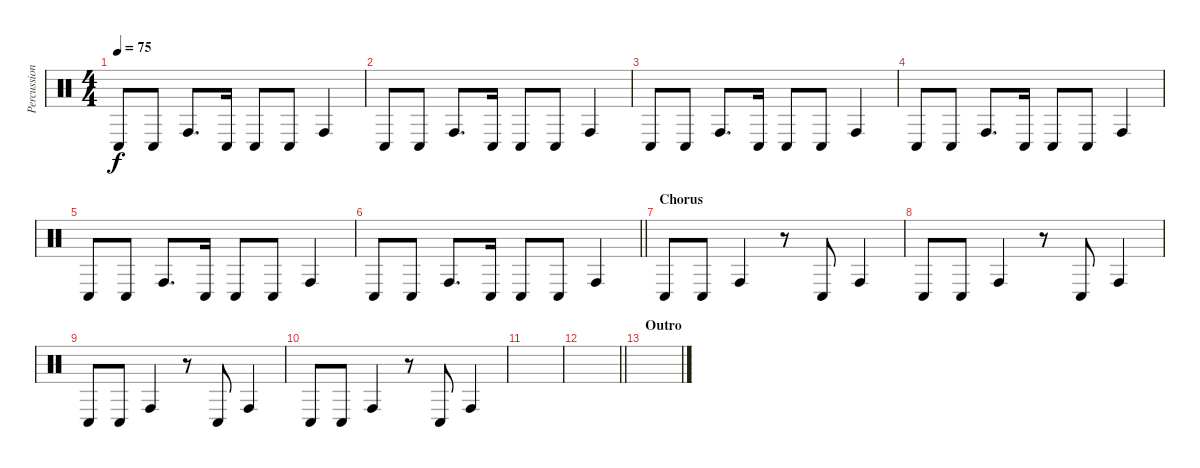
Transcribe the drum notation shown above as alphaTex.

\track ("Percussion (bongo's) +" "Percussion") {instrument percussion}
\staff {score}
\articulation defaults
\ts (4 4)
\tempo 75
\clef neutral
\ks c "Conga low (hit)".8{dy f} "Conga low (hit)".8 "Conga high (hit)".8{d} "Conga low (hit)".16 "Conga low (hit)".8 "Conga low (hit)".8 "Conga high (hit)".4
|
"Conga low (hit)".8 "Conga low (hit)".8 "Conga high (hit)".8{d} "Conga low (hit)".16 "Conga low (hit)".8 "Conga low (hit)".8 "Conga high (hit)".4 |
"Conga low (hit)".8 "Conga low (hit)".8 "Conga high (hit)".8{d} "Conga low (hit)".16 "Conga low (hit)".8 "Conga low (hit)".8 "Conga high (hit)".4 |
"Conga low (hit)".8 "Conga low (hit)".8 "Conga high (hit)".8{d} "Conga low (hit)".16 "Conga low (hit)".8 "Conga low (hit)".8 "Conga high (hit)".4 |
"Conga low (hit)".8 "Conga low (hit)".8 "Conga high (hit)".8{d} "Conga low (hit)".16 "Conga low (hit)".8 "Conga low (hit)".8 "Conga high (hit)".4 |
\barLineRight lightlight "Conga low (hit)".8 "Conga low (hit)".8 "Conga high (hit)".8{d} "Conga low (hit)".16 "Conga low (hit)".8 "Conga low (hit)".8 "Conga high (hit)".4
|
\section ("" "Chorus")
"Conga low (hit)".8 "Conga low (hit)".8 "Conga high (hit)".4 r.8 "Conga low (hit)".8 "Conga high (hit)".4 |
"Conga low (hit)".8 "Conga low (hit)".8 "Conga high (hit)".4 r.8 "Conga low (hit)".8 "Conga high (hit)".4 |
"Conga low (hit)".8 "Conga low (hit)".8 "Conga high (hit)".4 r.8 "Conga low (hit)".8 "Conga high (hit)".4 |
"Conga low (hit)".8 "Conga low (hit)".8 "Conga high (hit)".4 r.8 "Conga low (hit)".8 "Conga high (hit)".4 |
|
\barLineRight lightlight
|
\section ("" "Outro")
